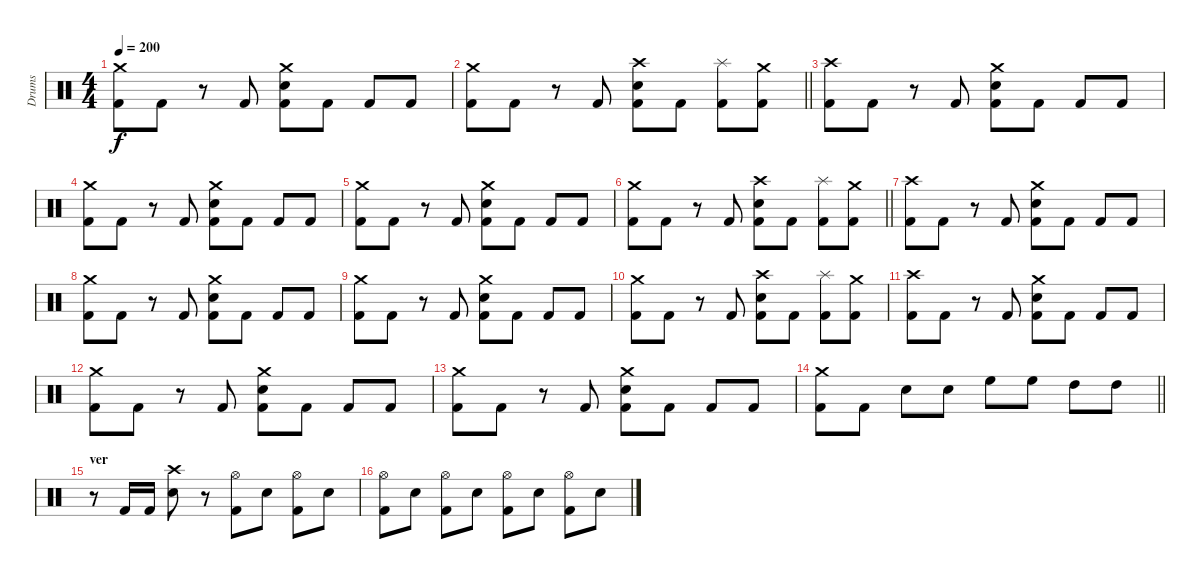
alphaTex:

\track ("Drums" "Drums") {instrument percussion}
\staff {score}
\articulation defaults
\ts (4 4)
\tempo 200
\clef neutral
\ks c
("Crash medium (hit)" "Kick (hit) 2").8{dy f} "Kick (hit) 2".8 r.8 "Kick (hit) 2".8 ("Crash medium (hit)" "Electric Snare (hit)" "Kick (hit) 2").8 "Kick (hit) 2".8 "Kick (hit) 2".8 "Kick (hit) 2".8 |
\barLineRight lightlight
("Crash medium (hit)" "Kick (hit) 2").8 "Kick (hit) 2".8 r.8 "Kick (hit) 2".8 ("Crash high (hit)" "Electric Snare (hit)" "Kick (hit) 2").8 "Kick (hit) 2".8 ("Splash (hit)" "Kick (hit) 2").8 ("Crash medium (hit)" "Kick (hit) 2").8 |
("Crash high (hit)" "Kick (hit) 2").8 "Kick (hit) 2".8 r.8 "Kick (hit) 2".8 ("Crash medium (hit)" "Electric Snare (hit)" "Kick (hit) 2").8 "Kick (hit) 2".8 "Kick (hit) 2".8 "Kick (hit) 2".8 |
("Crash medium (hit)" "Kick (hit) 2").8 "Kick (hit) 2".8 r.8 "Kick (hit) 2".8 ("Crash medium (hit)" "Electric Snare (hit)" "Kick (hit) 2").8 "Kick (hit) 2".8 "Kick (hit) 2".8 "Kick (hit) 2".8 |
("Crash medium (hit)" "Kick (hit) 2").8 "Kick (hit) 2".8 r.8 "Kick (hit) 2".8 ("Crash medium (hit)" "Electric Snare (hit)" "Kick (hit) 2").8 "Kick (hit) 2".8 "Kick (hit) 2".8 "Kick (hit) 2".8 |
\barLineRight lightlight
("Crash medium (hit)" "Kick (hit) 2").8 "Kick (hit) 2".8 r.8 "Kick (hit) 2".8 ("Crash high (hit)" "Electric Snare (hit)" "Kick (hit) 2").8 "Kick (hit) 2".8 ("Splash (hit)" "Kick (hit) 2").8 ("Crash medium (hit)" "Kick (hit) 2").8 |
("Crash high (hit)" "Kick (hit) 2").8 "Kick (hit) 2".8 r.8 "Kick (hit) 2".8 ("Crash medium (hit)" "Electric Snare (hit)" "Kick (hit) 2").8 "Kick (hit) 2".8 "Kick (hit) 2".8 "Kick (hit) 2".8 |
("Crash medium (hit)" "Kick (hit) 2").8 "Kick (hit) 2".8 r.8 "Kick (hit) 2".8 ("Crash medium (hit)" "Electric Snare (hit)" "Kick (hit) 2").8 "Kick (hit) 2".8 "Kick (hit) 2".8 "Kick (hit) 2".8 |
("Crash medium (hit)" "Kick (hit) 2").8 "Kick (hit) 2".8 r.8 "Kick (hit) 2".8 ("Crash medium (hit)" "Electric Snare (hit)" "Kick (hit) 2").8 "Kick (hit) 2".8 "Kick (hit) 2".8 "Kick (hit) 2".8 |
("Crash medium (hit)" "Kick (hit) 2").8 "Kick (hit) 2".8 r.8 "Kick (hit) 2".8 ("Crash high (hit)" "Electric Snare (hit)" "Kick (hit) 2").8 "Kick (hit) 2".8 ("Splash (hit)" "Kick (hit) 2").8 ("Crash medium (hit)" "Kick (hit) 2").8 |
("Crash high (hit)" "Kick (hit) 2").8 "Kick (hit) 2".8 r.8 "Kick (hit) 2".8 ("Crash medium (hit)" "Electric Snare (hit)" "Kick (hit) 2").8 "Kick (hit) 2".8 "Kick (hit) 2".8 "Kick (hit) 2".8 |
("Crash medium (hit)" "Kick (hit) 2").8 "Kick (hit) 2".8 r.8 "Kick (hit) 2".8 ("Crash medium (hit)" "Electric Snare (hit)" "Kick (hit) 2").8 "Kick (hit) 2".8 "Kick (hit) 2".8 "Kick (hit) 2".8 |
("Crash medium (hit)" "Kick (hit) 2").8 "Kick (hit) 2".8 r.8 "Kick (hit) 2".8 ("Crash medium (hit)" "Electric Snare (hit)" "Kick (hit) 2").8 "Kick (hit) 2".8 "Kick (hit) 2".8 "Kick (hit) 2".8 |
\barLineRight lightlight
("Crash medium (hit)" "Kick (hit) 2").8 "Kick (hit) 2".8 "Electric Snare (hit)".8 "Electric Snare (hit)".8 "High Floor Tom (hit)".8 "High Floor Tom (hit)".8 "High Tom (hit)".8 "High Tom (hit)".8 |
\section ("" "ver")
r.8 "Kick (hit) 2".16 "Kick (hit) 2".16 ("Crash high (hit)" "Electric Snare (hit)").8 r.8 ("Hi-Hat (open)" "Kick (hit) 2").8 "Electric Snare (hit)".8 ("Hi-Hat (open)" "Kick (hit) 2").8 "Electric Snare (hit)".8 |
("Hi-Hat (open)" "Kick (hit) 2").8 "Electric Snare (hit)".8 ("Hi-Hat (open)" "Kick (hit) 2").8 "Electric Snare (hit)".8 ("Hi-Hat (open)" "Kick (hit) 2").8 "Electric Snare (hit)".8 ("Hi-Hat (open)" "Kick (hit) 2").8 "Electric Snare (hit)".8
